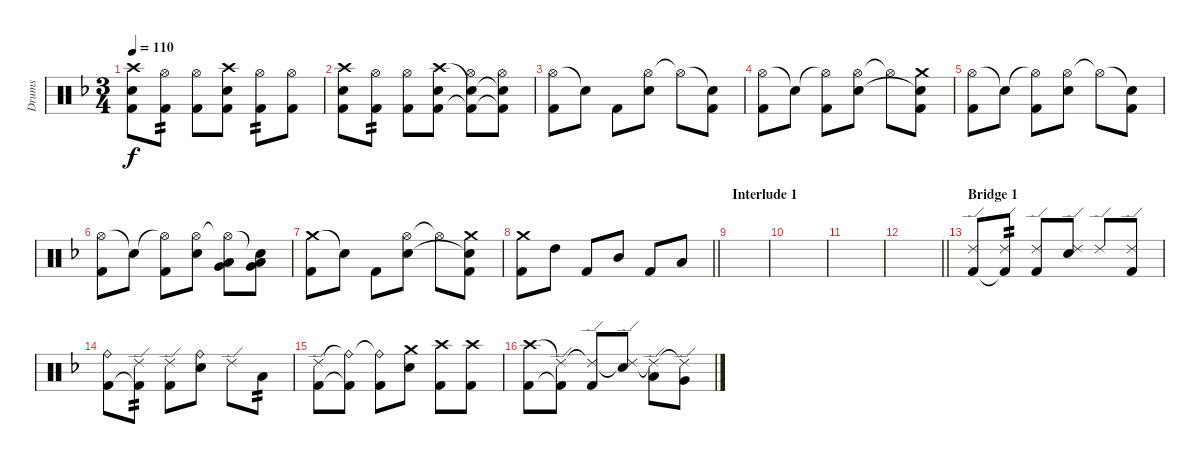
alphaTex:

\track ("Drums" "Drums") {instrument percussion}
\staff {score}
\articulation defaults
\ts (3 4)
\tempo 110
\clef neutral
\ks dminor
("Crash high (hit)" "Snare (hit) 2" "Kick (hit) 2").8{dy f} ("Hi-Hat (open)" "Kick (hit) 2").8{tp 2} ("Hi-Hat (open)" "Kick (hit) 2").8 ("Crash high (hit)" "Snare (hit) 2" "Kick (hit) 2").8 ("Hi-Hat (open)" "Kick (hit) 2").8{tp 2} ("Hi-Hat (open)" "Kick (hit) 2").8 |
("Crash high (hit)" "Snare (hit) 2" "Kick (hit) 2").8 ("Hi-Hat (open)" "Kick (hit) 2").8{tp 2} ("Hi-Hat (open)" "Kick (hit) 2").8 ("Crash high (hit)" "Snare (hit) 2" "Kick (hit) 2").8 ("Snare (hit)"{t} "Hi-Hat (open)" "Kick (hit) 2"{t}).8 ("Snare (hit)"{t} "Hi-Hat (open)" "Kick (hit) 2"{t}).8 |
("Hi-Hat (open)" "Kick (hit) 2").8 "Snare (hit)"{t}.8 "Kick (hit) 2".8 ("Hi-Hat (open)" "Snare (hit) 2").8 "Hi-Hat (open)"{t}.8 ("Snare (hit)"{t} "Kick (hit) 2").8 |
("Hi-Hat (open)" "Kick (hit) 2").8 "Snare (hit)"{t}.8 ("Hi-Hat (open)"{t} "Kick (hit) 2").8 ("Hi-Hat (open)" "Snare (hit) 2").8 "Hi-Hat (open)"{t}.8 ("Crash medium (hit)" "Snare (hit)"{t} "Kick (hit) 2").8 |
("Hi-Hat (open)" "Kick (hit) 2").8 "Snare (hit)"{t}.8 ("Hi-Hat (open)"{t} "Kick (hit) 2").8 ("Hi-Hat (open)" "Snare (hit) 2").8 "Hi-Hat (open)"{t}.8 ("Snare (hit)"{t} "Kick (hit) 2").8 |
("Hi-Hat (open)" "Kick (hit) 2").8 "Snare (hit)"{t}.8 ("Hi-Hat (open)"{t} "Kick (hit) 2").8 ("Hi-Hat (open)" "Snare (hit) 2").8 ("Hi-Hat (open)"{t} "Very Low Tom (hit)" "Low Tom (hit)").8 ("Snare (hit)"{t} "Very Low Tom (hit)" "Low Tom (hit)").8 |
("Crash medium (hit)" "Kick (hit) 2").8 "Snare (hit)"{t}.8 "Kick (hit) 2".8 ("Hi-Hat (open)" "Snare (hit) 2").8 "Hi-Hat (open)"{t}.8 ("Crash medium (hit)" "Snare (hit)"{t} "Kick (hit) 2").8 |
\barLineRight lightlight
("Crash medium (hit)" "Kick (hit) 2").8 "High Tom (hit)".8 "Kick (hit) 2".8 "Mid Tom (hit)".8 "Kick (hit) 2".8 "Low Tom (hit)".8 |
\section ("" "Interlude 1")
|
|
|
\barLineRight lightlight
|
\section ("" "Bridge 1")
("Ride (edge) 2" "Kick (hit) 2").8 ("Ride (edge) 2" "Kick (hit) 2"{t}).8{tp 2} ("Ride (edge) 2" "Kick (hit) 2").8 ("Ride (edge) 2" "Snare (hit) 2").8 "Ride (edge) 2".8 ("Ride (edge) 2" "Kick (hit) 2").8 |
("Ride (bell)" "Kick (hit) 2").8 ("Ride (edge) 2" "Kick (hit) 2"{t}).8{tp 2} ("Ride (edge) 2" "Kick (hit) 2").8 ("Ride (bell)" "Snare (hit) 2").8 "Ride (edge) 2".8 "Low Tom (hit)".8{tp 2} |
("Ride (edge) 2" "Kick (hit) 2").8 ("Ride (bell)"{t} "Kick (hit) 2"{t}).8 ("Ride (bell)"{t} "Kick (hit) 2").8 ("Crash medium (hit)" "Snare (hit) 2").8 ("Crash high (hit)" "Kick (hit) 2").8 ("Crash high (hit)" "Kick (hit) 2").8 |
("Crash high (hit)" "Kick (hit) 2").8 ("Ride (edge) 2"{t} "Kick (hit) 2"{t}).8 ("Ride (edge) 2"{t} "Kick (hit) 2").8 ("Ride (edge) 2"{t} "Snare (hit) 2").8 ("Ride (edge) 2"{t} "Low Tom (hit)").8 ("Ride (edge) 2"{t} "Very Low Tom (hit)").8
